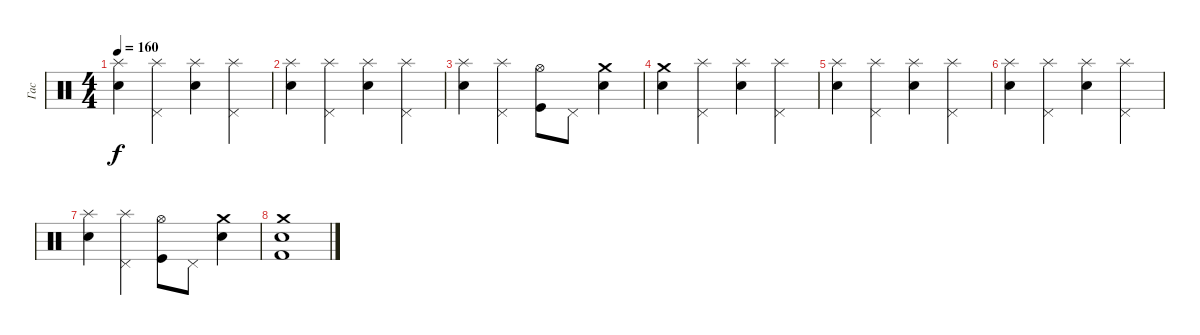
\track ("Гас" "Гас") {instrument percussion}
\staff {score}
\articulation defaults
\ts (4 4)
\tempo 160
\clef neutral
\ks c
("Splash (hit)" "Electric Snare (hit)").4{dy f} ("Splash (hit)" "Pedal Hi-Hat (hit)").4 ("Splash (hit)" "Electric Snare (hit)").4 ("Splash (hit)" "Pedal Hi-Hat (hit)").4 |
("Splash (hit)" "Electric Snare (hit)").4 ("Splash (hit)" "Pedal Hi-Hat (hit)").4 ("Splash (hit)" "Electric Snare (hit)").4 ("Splash (hit)" "Pedal Hi-Hat (hit)").4 |
("Splash (hit)" "Electric Snare (hit)").4 ("Splash (hit)" "Pedal Hi-Hat (hit)").4 ("Hi-Hat (open)" "Kick (hit)").8 "Pedal Hi-Hat (hit)".8 ("Crash medium (hit)" "Electric Snare (hit)").4 |
("Crash medium (hit)" "Electric Snare (hit)").4 ("Splash (hit)" "Pedal Hi-Hat (hit)").4 ("Splash (hit)" "Electric Snare (hit)").4 ("Splash (hit)" "Pedal Hi-Hat (hit)").4 |
("Splash (hit)" "Electric Snare (hit)").4 ("Splash (hit)" "Pedal Hi-Hat (hit)").4 ("Splash (hit)" "Electric Snare (hit)").4 ("Splash (hit)" "Pedal Hi-Hat (hit)").4 |
("Splash (hit)" "Electric Snare (hit)").4 ("Splash (hit)" "Pedal Hi-Hat (hit)").4 ("Splash (hit)" "Electric Snare (hit)").4 ("Splash (hit)" "Pedal Hi-Hat (hit)").4 |
("Splash (hit)" "Electric Snare (hit)").4 ("Splash (hit)" "Pedal Hi-Hat (hit)").4 ("Hi-Hat (open)" "Kick (hit)").8 "Pedal Hi-Hat (hit)".8 ("Crash medium (hit)" "Electric Snare (hit)").4 |
("Crash medium (hit)" "Kick (hit) 2" "Electric Snare (hit)").1
